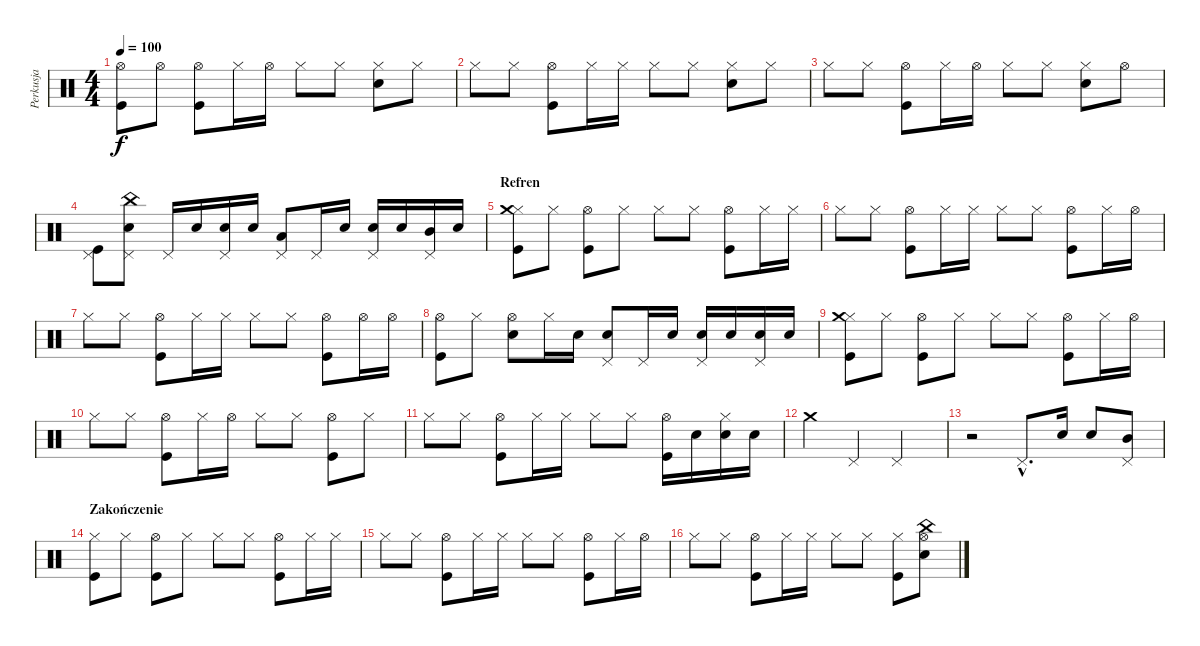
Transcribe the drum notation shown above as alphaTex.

\track ("Perkusja" "Perkusja") {instrument percussion}
\staff {score}
\articulation defaults
\ts (4 4)
\tempo 100
\clef neutral
\ks c
("Kick (hit)" "Hi-Hat (open)").8{dy f} "Hi-Hat (open)".8 ("Kick (hit)" "Hi-Hat (open)").8 "Hi-Hat (closed)".16 "Hi-Hat (open)".16 "Hi-Hat (closed)".8 "Hi-Hat (closed)".8 ("Electric Snare (hit)" "Hi-Hat (closed)").8 "Hi-Hat (closed)".8 |
"Hi-Hat (closed)".8 "Hi-Hat (closed)".8 ("Kick (hit)" "Hi-Hat (open)").8 "Hi-Hat (closed)".16 "Hi-Hat (closed)".16 "Hi-Hat (closed)".8 "Hi-Hat (closed)".8 ("Electric Snare (hit)" "Hi-Hat (closed)").8 "Hi-Hat (closed)".8 |
"Hi-Hat (closed)".8 "Hi-Hat (closed)".8 ("Kick (hit)" "Hi-Hat (open)").8 "Hi-Hat (closed)".16 "Hi-Hat (open)".16 "Hi-Hat (closed)".8 "Hi-Hat (closed)".8 ("Electric Snare (hit)" "Hi-Hat (closed)").8 "Hi-Hat (open)".8 |
("Kick (hit)" "Pedal Hi-Hat (hit)").8 ("Electric Snare (hit)" "Pedal Hi-Hat (hit)" "China (hit)").8 "Pedal Hi-Hat (hit)".16 "Electric Snare (hit)".16 ("Electric Snare (hit)" "Pedal Hi-Hat (hit)").16 "Electric Snare (hit)".16 ("Pedal Hi-Hat (hit)" "Low Tom (hit)").8 "Pedal Hi-Hat (hit)".16 "Electric Snare (hit)".16 ("Electric Snare (hit)" "Pedal Hi-Hat (hit)").16 "Electric Snare (hit)".16 ("Pedal Hi-Hat (hit)" "Mid Tom (hit)").16 "Electric Snare (hit)".16 |
\section ("" "Refren")
("Kick (hit)" "Hi-Hat (closed)" "Crash medium (hit)").8 "Hi-Hat (closed)".8 ("Kick (hit)" "Hi-Hat (open)").8 "Hi-Hat (closed)".8 "Hi-Hat (closed)".8 "Hi-Hat (closed)".8 ("Kick (hit)" "Hi-Hat (open)").8 "Hi-Hat (closed)".16 "Hi-Hat (closed)".16 |
"Hi-Hat (closed)".8 "Hi-Hat (closed)".8 ("Kick (hit)" "Hi-Hat (open)").8 "Hi-Hat (closed)".16 "Hi-Hat (closed)".16 "Hi-Hat (closed)".8 "Hi-Hat (closed)".8 ("Kick (hit)" "Hi-Hat (open)").8 "Hi-Hat (closed)".16 "Hi-Hat (open)".16 |
"Hi-Hat (closed)".8 "Hi-Hat (closed)".8 ("Kick (hit)" "Hi-Hat (open)").8 "Hi-Hat (closed)".16 "Hi-Hat (closed)".16 "Hi-Hat (closed)".8 "Hi-Hat (closed)".8 ("Kick (hit)" "Hi-Hat (open)").8 "Hi-Hat (open)".16 "Hi-Hat (open)".16 |
("Kick (hit)" "Hi-Hat (open)").8 "Hi-Hat (closed)".8 ("Electric Snare (hit)" "Hi-Hat (open)").8 "Hi-Hat (closed)".16 "Electric Snare (hit)".16 ("Electric Snare (hit)" "Pedal Hi-Hat (hit)").8 "Pedal Hi-Hat (hit)".16 "Electric Snare (hit)".16 ("Electric Snare (hit)" "Pedal Hi-Hat (hit)").16 "Electric Snare (hit)".16 ("Electric Snare (hit)" "Pedal Hi-Hat (hit)").16 "Electric Snare (hit)".16 |
("Kick (hit)" "Hi-Hat (closed)" "Crash medium (hit)").8 "Hi-Hat (closed)".8 ("Kick (hit)" "Hi-Hat (open)").8 "Hi-Hat (closed)".8 "Hi-Hat (closed)".8 "Hi-Hat (closed)".8 ("Kick (hit)" "Hi-Hat (open)").8 "Hi-Hat (closed)".16 "Hi-Hat (open)".16 |
"Hi-Hat (closed)".8 "Hi-Hat (closed)".8 ("Kick (hit)" "Hi-Hat (open)").8 "Hi-Hat (closed)".16 "Hi-Hat (open)".16 "Hi-Hat (closed)".8 "Hi-Hat (closed)".8 ("Kick (hit)" "Hi-Hat (open)").8 "Hi-Hat (closed)".8 |
"Hi-Hat (closed)".8 "Hi-Hat (closed)".8 ("Kick (hit)" "Hi-Hat (open)").8 "Hi-Hat (closed)".16 "Hi-Hat (closed)".16 "Hi-Hat (closed)".8 "Hi-Hat (closed)".8 ("Kick (hit)" "Hi-Hat (open)").16 "Electric Snare (hit)".16 ("Electric Snare (hit)" "Hi-Hat (closed)").16 "Electric Snare (hit)".16 |
"Crash medium (hit)".4 "Pedal Hi-Hat (hit)".4 "Pedal Hi-Hat (hit)".2 |
r.2 "Pedal Hi-Hat (hit)"{hac}.8{d} "Electric Snare (hit)".16 "Electric Snare (hit)".8 ("Pedal Hi-Hat (hit)" "Mid Tom (hit)").8 |
\section ("" "Zakończenie")
("Kick (hit)" "Hi-Hat (closed)").8 "Hi-Hat (closed)".8 ("Kick (hit)" "Hi-Hat (open)").8 "Hi-Hat (closed)".8 "Hi-Hat (closed)".8 "Hi-Hat (closed)".8 ("Kick (hit)" "Hi-Hat (open)").8 "Hi-Hat (closed)".16 "Hi-Hat (closed)".16 |
"Hi-Hat (closed)".8 "Hi-Hat (closed)".8 ("Kick (hit)" "Hi-Hat (open)").8 "Hi-Hat (closed)".16 "Hi-Hat (closed)".16 "Hi-Hat (closed)".8 "Hi-Hat (closed)".8 ("Kick (hit)" "Hi-Hat (open)").8 "Hi-Hat (closed)".16 "Hi-Hat (open)".16 |
"Hi-Hat (closed)".8 "Hi-Hat (closed)".8 ("Kick (hit)" "Hi-Hat (open)").8 "Hi-Hat (closed)".16 "Hi-Hat (closed)".16 "Hi-Hat (closed)".8 "Hi-Hat (closed)".8 ("Kick (hit)" "Hi-Hat (closed)").8 ("Electric Snare (hit)" "Hi-Hat (open)" "China (hit)").8
